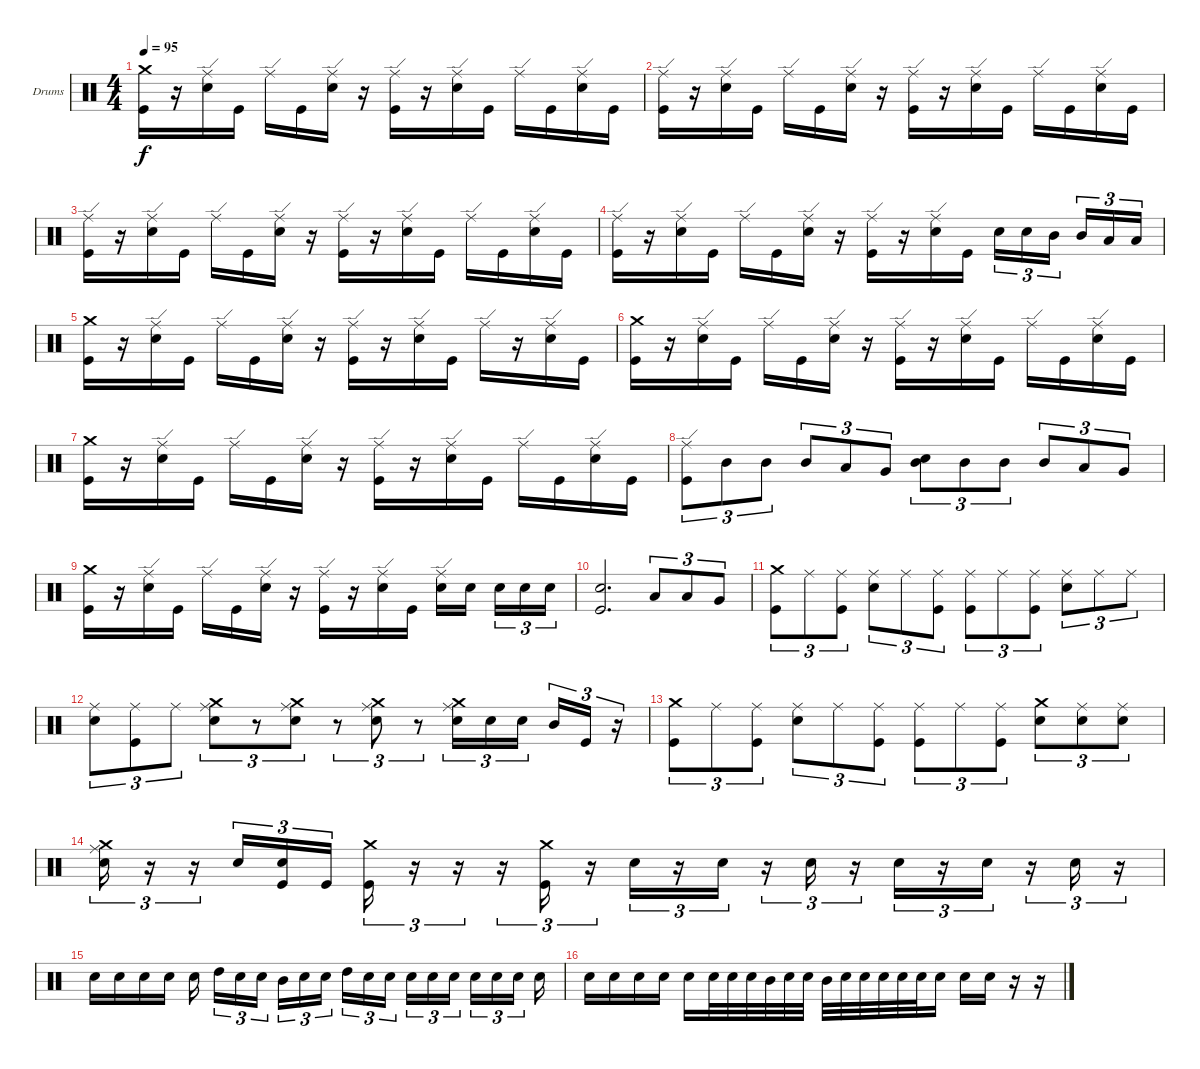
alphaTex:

\bracketExtendMode groupsimilarinstruments
\firstSystemTrackNameOrientation horizontal
\otherSystemsTrackNameOrientation horizontal
\track ("Drumkit" "Drums") {instrument percussion}
\staff {score}
\articulation defaults
\ts (4 4)
\tempo 95
\clef neutral
\ks c
("Crash medium (hit)" "Kick (hit)").16{dy f} r.16 ("Ride (edge)" "Snare (hit) 2").16 "Kick (hit)".16 "Ride (edge)".16 "Kick (hit)".16 ("Ride (edge)" "Snare (hit) 2").16 r.16 ("Ride (edge)" "Kick (hit)").16 r.16 ("Ride (edge)" "Snare (hit) 2").16 "Kick (hit)".16 "Ride (edge)".16 "Kick (hit)".16 ("Ride (edge)" "Snare (hit) 2").16 "Kick (hit)".16 |
("Ride (edge)" "Kick (hit)").16 r.16 ("Ride (edge)" "Snare (hit) 2").16 "Kick (hit)".16 "Ride (edge)".16 "Kick (hit)".16 ("Ride (edge)" "Snare (hit) 2").16 r.16 ("Ride (edge)" "Kick (hit)").16 r.16 ("Ride (edge)" "Snare (hit) 2").16 "Kick (hit)".16 "Ride (edge)".16 "Kick (hit)".16 ("Ride (edge)" "Snare (hit) 2").16 "Kick (hit)".16 |
("Ride (edge)" "Kick (hit)").16 r.16 ("Ride (edge)" "Snare (hit) 2").16 "Kick (hit)".16 "Ride (edge)".16 "Kick (hit)".16 ("Ride (edge)" "Snare (hit) 2").16 r.16 ("Ride (edge)" "Kick (hit)").16 r.16 ("Ride (edge)" "Snare (hit) 2").16 "Kick (hit)".16 "Ride (edge)".16 "Kick (hit)".16 ("Ride (edge)" "Snare (hit) 2").16 "Kick (hit)".16 |
("Ride (edge)" "Kick (hit)").16 r.16 ("Ride (edge)" "Snare (hit) 2").16 "Kick (hit)".16 "Ride (edge)".16 "Kick (hit)".16 ("Ride (edge)" "Snare (hit) 2").16 r.16 ("Ride (edge)" "Kick (hit)").16 r.16 ("Ride (edge)" "Snare (hit) 2").16 "Kick (hit)".16 "Snare (hit) 2".16{tu (3 2)} "Snare (hit) 2".16{tu (3 2)} "Mid Tom (hit)".16{tu (3 2)} "Mid Tom (hit)".16{tu (3 2)} "Low Tom (hit)".16{tu (3 2)} "Low Tom (hit)".16{tu (3 2)} |
("Crash medium (hit)" "Kick (hit)").16 r.16 ("Ride (edge)" "Snare (hit) 2").16 "Kick (hit)".16 "Ride (edge)".16 "Kick (hit)".16 ("Ride (edge)" "Snare (hit) 2").16 r.16 ("Ride (edge)" "Kick (hit)").16 r.16 ("Ride (edge)" "Snare (hit) 2").16 "Kick (hit)".16 "Ride (edge)".16 r.16 ("Ride (edge)" "Snare (hit) 2").16 "Kick (hit)".16 |
("Crash medium (hit)" "Kick (hit)").16 r.16 ("Ride (edge)" "Snare (hit) 2").16 "Kick (hit)".16 "Ride (edge)".16 "Kick (hit)".16 ("Ride (edge)" "Snare (hit) 2").16 r.16 ("Ride (edge)" "Kick (hit)").16 r.16 ("Ride (edge)" "Snare (hit) 2").16 "Kick (hit)".16 "Ride (edge)".16 "Kick (hit)".16 ("Ride (edge)" "Snare (hit) 2").16 "Kick (hit)".16 |
("Crash medium (hit)" "Kick (hit)").16 r.16 ("Ride (edge)" "Snare (hit) 2").16 "Kick (hit)".16 "Ride (edge)".16 "Kick (hit)".16 ("Ride (edge)" "Snare (hit) 2").16 r.16 ("Ride (edge)" "Kick (hit)").16 r.16 ("Ride (edge)" "Snare (hit) 2").16 "Kick (hit)".16 "Ride (edge)".16 "Kick (hit)".16 ("Ride (edge)" "Snare (hit) 2").16 "Kick (hit)".16 |
("Ride (edge)" "Kick (hit)").8{tu (3 2)} "Mid Tom (hit)".8{tu (3 2)} "Mid Tom (hit)".8{tu (3 2)} "Mid Tom (hit)".8{tu (3 2)} "Low Tom (hit)".8{tu (3 2)} "Very Low Tom (hit)".8{tu (3 2)} ("Mid Tom (hit)" "Snare (hit) 2").8{tu (3 2)} "Mid Tom (hit)".8{tu (3 2)} "Mid Tom (hit)".8{tu (3 2)} "Mid Tom (hit)".8{tu (3 2)} "Low Tom (hit)".8{tu (3 2)} "Very Low Tom (hit)".8{tu (3 2)} |
("Crash medium (hit)" "Kick (hit)").16 r.16 ("Ride (edge)" "Snare (hit) 2").16 "Kick (hit)".16 "Ride (edge)".16 "Kick (hit)".16 ("Ride (edge)" "Snare (hit) 2").16 r.16 ("Ride (edge)" "Kick (hit)").16 r.16 ("Ride (edge)" "Snare (hit) 2").16 "Kick (hit)".16 ("Ride (edge)" "Snare (hit) 2").16 "Snare (hit) 2".16 "Snare (hit) 2".16{tu (3 2)} "Snare (hit) 2".16{tu (3 2)} "Snare (hit) 2".16{tu (3 2)} |
("Snare (hit) 2" "Kick (hit)").2{d} "Low Tom (hit)".8{tu (3 2)} "Low Tom (hit)".8{tu (3 2)} "Very Low Tom (hit)".8{tu (3 2)} |
("Crash medium (hit)" "Kick (hit)").8{tu (3 2)} "Ride (middle)".8{tu (3 2)} ("Ride (middle)" "Kick (hit)").8{tu (3 2)} ("Ride (middle)" "Snare (hit) 2").8{tu (3 2)} "Ride (middle)".8{tu (3 2)} ("Ride (middle)" "Kick (hit)").8{tu (3 2)} ("Ride (middle)" "Kick (hit)").8{tu (3 2)} "Ride (middle)".8{tu (3 2)} ("Ride (middle)" "Kick (hit)").8{tu (3 2)} ("Ride (middle)" "Snare (hit) 2").8{tu (3 2)} "Ride (middle)".8{tu (3 2)} "Ride (middle)".8{tu (3 2)} |
("Ride (middle)" "Snare (hit) 2").8{tu (3 2)} ("Ride (middle)" "Kick (hit)").8{tu (3 2)} "Ride (middle)".8{tu (3 2)} ("Crash medium (hit)" "Ride (middle)" "Snare (hit) 2").8{tu (3 2)} r.8{tu (3 2)} ("Crash medium (hit)" "Ride (middle)" "Snare (hit) 2").8{tu (3 2)} r.8{tu (3 2)} ("Crash medium (hit)" "Ride (middle)" "Snare (hit) 2").8{tu (3 2)} r.8{tu (3 2)} ("Crash medium (hit)" "Ride (middle)" "Snare (hit) 2").16{tu (3 2)} "Snare (hit) 2".16{tu (3 2)} "Snare (hit) 2".16{tu (3 2)} "Mid Tom (hit)".16{tu (3 2)} "Kick (hit)".16{tu (3 2)} r.16{tu (3 2)} |
("Crash medium (hit)" "Kick (hit)").8{tu (3 2)} "Ride (middle)".8{tu (3 2)} ("Ride (middle)" "Kick (hit)").8{tu (3 2)} ("Ride (middle)" "Snare (hit) 2").8{tu (3 2)} "Ride (middle)".8{tu (3 2)} ("Ride (middle)" "Kick (hit)").8{tu (3 2)} ("Ride (middle)" "Kick (hit)").8{tu (3 2)} "Ride (middle)".8{tu (3 2)} ("Ride (middle)" "Kick (hit)").8{tu (3 2)} ("Crash medium (hit)" "Snare (hit) 2").8{tu (3 2)} ("Ride (middle)" "Snare (hit) 2").8{tu (3 2)} ("Ride (middle)" "Snare (hit) 2").8{tu (3 2)} |
("Crash medium (hit)" "Ride (middle)" "Snare (hit) 2").16{tu (3 2)} r.16{tu (3 2)} r.16{tu (3 2)} "Snare (hit) 2".16{tu (3 2)} ("Snare (hit) 2" "Kick (hit)").16{tu (3 2)} "Kick (hit)".16{tu (3 2)} ("Crash medium (hit)" "Kick (hit)").16{tu (3 2)} r.16{tu (3 2)} r.16{tu (3 2)} r.16{tu (3 2)} ("Crash medium (hit)" "Kick (hit)").16{tu (3 2)} r.16{tu (3 2)} "Snare (hit) 2".16{tu (3 2)} r.16{tu (3 2)} "Snare (hit) 2".16{tu (3 2)} r.16{tu (3 2)} "Snare (hit) 2".16{tu (3 2)} r.16{tu (3 2)} "Snare (hit) 2".16{tu (3 2)} r.16{tu (3 2)} "Snare (hit) 2".16{tu (3 2)} r.16{tu (3 2)} "Snare (hit) 2".16{tu (3 2)} r.16{tu (3 2)} |
"Snare (hit) 2".16 "Snare (hit) 2".16 "Snare (hit) 2".16 "Snare (hit) 2".16 "Snare (hit) 2".16 "High Tom (hit)".16{tu (3 2)} "Snare (hit) 2".16{tu (3 2)} "Snare (hit) 2".16{tu (3 2)} "Mid Tom (hit)".16{tu (3 2)} "Snare (hit) 2".16{tu (3 2)} "Snare (hit) 2".16{tu (3 2)} "High Tom (hit)".16{tu (3 2)} "Snare (hit) 2".16{tu (3 2)} "Snare (hit) 2".16{tu (3 2)} "Snare (hit) 2".16{tu (3 2)} "Snare (hit) 2".16{tu (3 2)} "Snare (hit) 2".16{tu (3 2)} "Snare (hit) 2".16{tu (3 2)} "Snare (hit) 2".16{tu (3 2)} "Snare (hit) 2".16{tu (3 2)} "Snare (hit) 2".16 |
"Snare (hit) 2".16 "Snare (hit) 2".16 "Snare (hit) 2".16 "Snare (hit) 2".16 "Snare (hit) 2".16 "Snare (hit) 2".32 "Snare (hit) 2".32 "Snare (hit) 2".32 "Mid Tom (hit)".32 "Snare (hit) 2".32 "Snare (hit) 2".32 "Mid Tom (hit)".32 "Snare (hit) 2".32 "Snare (hit) 2".32 "Snare (hit) 2".32 "Snare (hit) 2".32 "Snare (hit) 2".32 "Snare (hit) 2".16 "Snare (hit) 2".16 "Snare (hit) 2".16 r.16 r.16
